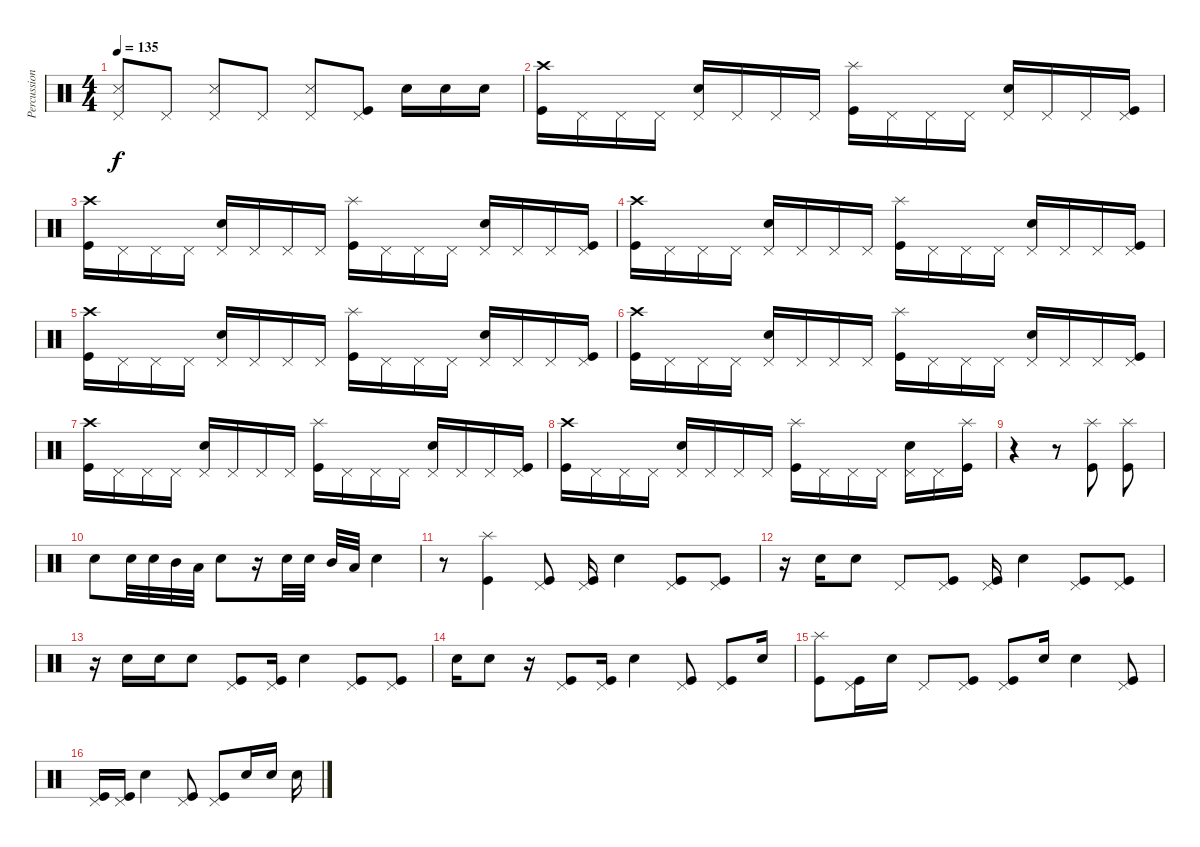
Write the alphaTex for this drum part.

\track ("Percussion" "Percussion") {instrument percussion}
\staff {score}
\articulation defaults
\ts (4 4)
\tempo 135
\clef neutral
\ks c
("Snare (side stick) 3" "Pedal Hi-Hat (hit)").8{dy f} "Pedal Hi-Hat (hit)".8 ("Snare (side stick) 3" "Pedal Hi-Hat (hit)").8 "Pedal Hi-Hat (hit)".8 ("Snare (side stick) 3" "Pedal Hi-Hat (hit)").8 ("Kick (hit)" "Pedal Hi-Hat (hit)").8 "Electric Snare (hit)".16 "Electric Snare (hit)".16 "Electric Snare (hit)".16 |
("Kick (hit)" "Crash high (hit)").16 "Pedal Hi-Hat (hit)".16 "Pedal Hi-Hat (hit)".16 "Pedal Hi-Hat (hit)".16 ("Pedal Hi-Hat (hit)" "Electric Snare (hit)").16 "Pedal Hi-Hat (hit)".16 "Pedal Hi-Hat (hit)".16 "Pedal Hi-Hat (hit)".16 ("Splash (hit)" "Kick (hit)").16 "Pedal Hi-Hat (hit)".16 "Pedal Hi-Hat (hit)".16 "Pedal Hi-Hat (hit)".16 ("Pedal Hi-Hat (hit)" "Electric Snare (hit)").16 "Pedal Hi-Hat (hit)".16 "Pedal Hi-Hat (hit)".16 ("Pedal Hi-Hat (hit)" "Kick (hit)").16 |
("Kick (hit)" "Crash high (hit)").16 "Pedal Hi-Hat (hit)".16 "Pedal Hi-Hat (hit)".16 "Pedal Hi-Hat (hit)".16 ("Pedal Hi-Hat (hit)" "Electric Snare (hit)").16 "Pedal Hi-Hat (hit)".16 "Pedal Hi-Hat (hit)".16 "Pedal Hi-Hat (hit)".16 ("Splash (hit)" "Kick (hit)").16 "Pedal Hi-Hat (hit)".16 "Pedal Hi-Hat (hit)".16 "Pedal Hi-Hat (hit)".16 ("Pedal Hi-Hat (hit)" "Electric Snare (hit)").16 "Pedal Hi-Hat (hit)".16 "Pedal Hi-Hat (hit)".16 ("Pedal Hi-Hat (hit)" "Kick (hit)").16 |
("Kick (hit)" "Crash high (hit)").16 "Pedal Hi-Hat (hit)".16 "Pedal Hi-Hat (hit)".16 "Pedal Hi-Hat (hit)".16 ("Pedal Hi-Hat (hit)" "Electric Snare (hit)").16 "Pedal Hi-Hat (hit)".16 "Pedal Hi-Hat (hit)".16 "Pedal Hi-Hat (hit)".16 ("Splash (hit)" "Kick (hit)").16 "Pedal Hi-Hat (hit)".16 "Pedal Hi-Hat (hit)".16 "Pedal Hi-Hat (hit)".16 ("Pedal Hi-Hat (hit)" "Electric Snare (hit)").16 "Pedal Hi-Hat (hit)".16 "Pedal Hi-Hat (hit)".16 ("Pedal Hi-Hat (hit)" "Kick (hit)").16 |
("Kick (hit)" "Crash high (hit)").16 "Pedal Hi-Hat (hit)".16 "Pedal Hi-Hat (hit)".16 "Pedal Hi-Hat (hit)".16 ("Pedal Hi-Hat (hit)" "Electric Snare (hit)").16 "Pedal Hi-Hat (hit)".16 "Pedal Hi-Hat (hit)".16 "Pedal Hi-Hat (hit)".16 ("Splash (hit)" "Kick (hit)").16 "Pedal Hi-Hat (hit)".16 "Pedal Hi-Hat (hit)".16 "Pedal Hi-Hat (hit)".16 ("Pedal Hi-Hat (hit)" "Electric Snare (hit)").16 "Pedal Hi-Hat (hit)".16 "Pedal Hi-Hat (hit)".16 ("Pedal Hi-Hat (hit)" "Kick (hit)").16 |
("Kick (hit)" "Crash high (hit)").16 "Pedal Hi-Hat (hit)".16 "Pedal Hi-Hat (hit)".16 "Pedal Hi-Hat (hit)".16 ("Pedal Hi-Hat (hit)" "Electric Snare (hit)").16 "Pedal Hi-Hat (hit)".16 "Pedal Hi-Hat (hit)".16 "Pedal Hi-Hat (hit)".16 ("Splash (hit)" "Kick (hit)").16 "Pedal Hi-Hat (hit)".16 "Pedal Hi-Hat (hit)".16 "Pedal Hi-Hat (hit)".16 ("Pedal Hi-Hat (hit)" "Electric Snare (hit)").16 "Pedal Hi-Hat (hit)".16 "Pedal Hi-Hat (hit)".16 ("Pedal Hi-Hat (hit)" "Kick (hit)").16 |
("Kick (hit)" "Crash high (hit)").16 "Pedal Hi-Hat (hit)".16 "Pedal Hi-Hat (hit)".16 "Pedal Hi-Hat (hit)".16 ("Pedal Hi-Hat (hit)" "Electric Snare (hit)").16 "Pedal Hi-Hat (hit)".16 "Pedal Hi-Hat (hit)".16 "Pedal Hi-Hat (hit)".16 ("Splash (hit)" "Kick (hit)").16 "Pedal Hi-Hat (hit)".16 "Pedal Hi-Hat (hit)".16 "Pedal Hi-Hat (hit)".16 ("Pedal Hi-Hat (hit)" "Electric Snare (hit)").16 "Pedal Hi-Hat (hit)".16 "Pedal Hi-Hat (hit)".16 ("Pedal Hi-Hat (hit)" "Kick (hit)").16 |
("Kick (hit)" "Crash high (hit)").16 "Pedal Hi-Hat (hit)".16 "Pedal Hi-Hat (hit)".16 "Pedal Hi-Hat (hit)".16 ("Pedal Hi-Hat (hit)" "Electric Snare (hit)").16 "Pedal Hi-Hat (hit)".16 "Pedal Hi-Hat (hit)".16 "Pedal Hi-Hat (hit)".16 ("Splash (hit)" "Kick (hit)").16 "Pedal Hi-Hat (hit)".16 "Pedal Hi-Hat (hit)".16 "Pedal Hi-Hat (hit)".16 ("Pedal Hi-Hat (hit)" "Electric Snare (hit)").16 "Pedal Hi-Hat (hit)".16 ("Kick (hit)" "Splash (hit)").16 |
r.4 r.8 ("Splash (hit)" "Kick (hit)").8 ("Splash (hit)" "Kick (hit)").8 |
"Electric Snare (hit)".8 "Electric Snare (hit)".32 "Electric Snare (hit)".32 "Mid Tom (hit)".32 "Low Tom (hit)".32 "Electric Snare (hit)".8 r.16 "Electric Snare (hit)".32 "Electric Snare (hit)".32 "Mid Tom (hit)".32 "Low Tom (hit)".32 "Electric Snare (hit)".4 |
r.8 ("Splash (hit)" "Kick (hit)").4 ("Pedal Hi-Hat (hit)" "Kick (hit)").8 ("Pedal Hi-Hat (hit)" "Kick (hit)").16 "Electric Snare (hit)".4 ("Pedal Hi-Hat (hit)" "Kick (hit)").8 ("Pedal Hi-Hat (hit)" "Kick (hit)").8 |
r.16 "Electric Snare (hit)".16 "Electric Snare (hit)".8 "Pedal Hi-Hat (hit)".8 ("Pedal Hi-Hat (hit)" "Kick (hit)").8 ("Pedal Hi-Hat (hit)" "Kick (hit)").16 "Electric Snare (hit)".4 ("Pedal Hi-Hat (hit)" "Kick (hit)").8 ("Pedal Hi-Hat (hit)" "Kick (hit)").8 |
r.16 "Electric Snare (hit)".16 "Electric Snare (hit)".16 "Electric Snare (hit)".8 ("Pedal Hi-Hat (hit)" "Kick (hit)").8 ("Pedal Hi-Hat (hit)" "Kick (hit)").16 "Electric Snare (hit)".4 ("Pedal Hi-Hat (hit)" "Kick (hit)").8 ("Pedal Hi-Hat (hit)" "Kick (hit)").8 |
"Electric Snare (hit)".16 "Electric Snare (hit)".8 r.16 ("Pedal Hi-Hat (hit)" "Kick (hit)").8 ("Pedal Hi-Hat (hit)" "Kick (hit)").16 "Electric Snare (hit)".4 ("Pedal Hi-Hat (hit)" "Kick (hit)").8 ("Pedal Hi-Hat (hit)" "Kick (hit)").8 "Electric Snare (hit)".16 |
("Splash (hit)" "Kick (hit)").8 ("Pedal Hi-Hat (hit)" "Kick (hit)").16 "Electric Snare (hit)".16 "Pedal Hi-Hat (hit)".8 ("Pedal Hi-Hat (hit)" "Kick (hit)").8 ("Pedal Hi-Hat (hit)" "Kick (hit)").8 "Electric Snare (hit)".16 "Electric Snare (hit)".4 ("Pedal Hi-Hat (hit)" "Kick (hit)").8 |
("Pedal Hi-Hat (hit)" "Kick (hit)").16 ("Pedal Hi-Hat (hit)" "Kick (hit)").16 "Electric Snare (hit)".4 ("Pedal Hi-Hat (hit)" "Kick (hit)").8 ("Pedal Hi-Hat (hit)" "Kick (hit)").8 "Electric Snare (hit)".16 "Electric Snare (hit)".16 "Electric Snare (hit)".16
